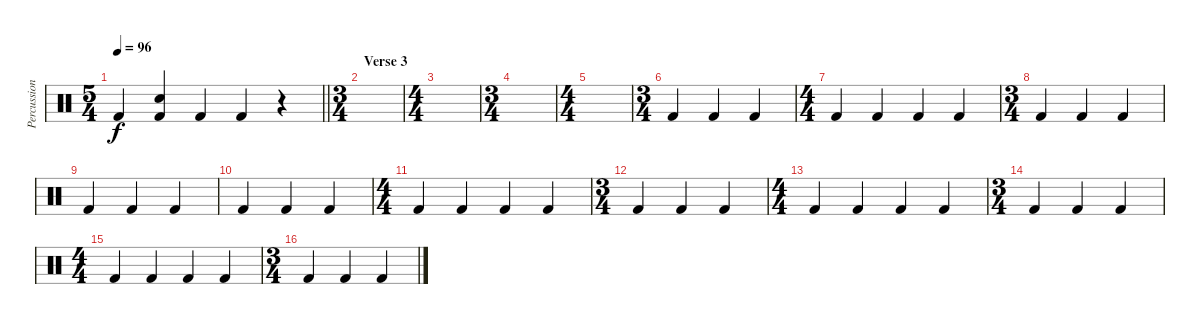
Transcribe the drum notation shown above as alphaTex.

\track ("Percussion" "Percussion") {instrument percussion}
\staff {score}
\articulation defaults
\ts (5 4)
\tempo 96
\clef neutral
\barLineRight lightlight
\ks c "Kick (hit) 2".4{dy f}
("Snare (hit) 2" "Kick (hit) 2").4 "Kick (hit) 2".4 "Kick (hit) 2".4 r.4 |
\ts (3 4)
\section ("" "Verse 3")
|
\ts (4 4)
|
\ts (3 4)
|
\ts (4 4)
|
\ts (3 4)
"Kick (hit) 2".4 "Kick (hit) 2".4 "Kick (hit) 2".4 |
\ts (4 4)
"Kick (hit) 2".4 "Kick (hit) 2".4 "Kick (hit) 2".4 "Kick (hit) 2".4 |
\ts (3 4)
"Kick (hit) 2".4 "Kick (hit) 2".4 "Kick (hit) 2".4 |
"Kick (hit) 2".4 "Kick (hit) 2".4 "Kick (hit) 2".4 |
"Kick (hit) 2".4 "Kick (hit) 2".4 "Kick (hit) 2".4 |
\ts (4 4)
"Kick (hit) 2".4 "Kick (hit) 2".4 "Kick (hit) 2".4 "Kick (hit) 2".4 |
\ts (3 4)
"Kick (hit) 2".4 "Kick (hit) 2".4 "Kick (hit) 2".4 |
\ts (4 4)
"Kick (hit) 2".4 "Kick (hit) 2".4 "Kick (hit) 2".4 "Kick (hit) 2".4 |
\ts (3 4)
"Kick (hit) 2".4 "Kick (hit) 2".4 "Kick (hit) 2".4 |
\ts (4 4)
"Kick (hit) 2".4 "Kick (hit) 2".4 "Kick (hit) 2".4 "Kick (hit) 2".4 |
\ts (3 4)
"Kick (hit) 2".4 "Kick (hit) 2".4 "Kick (hit) 2".4
